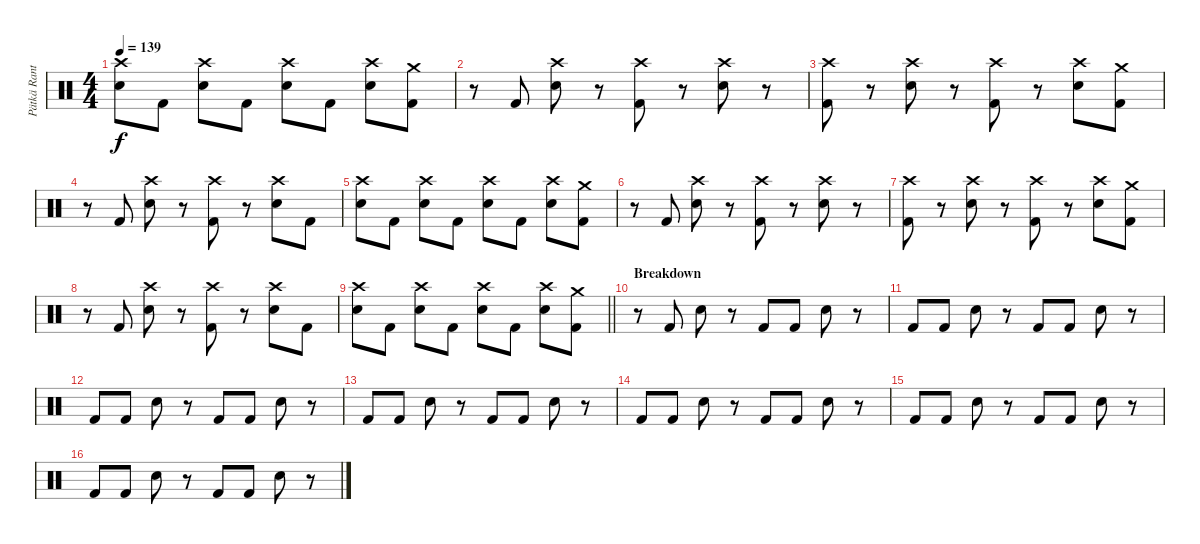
\track ("Pätkä Rantala (Drums)" "Pätkä Rant") {instrument percussion}
\staff {score}
\articulation defaults
\ts (4 4)
\tempo 139
\clef neutral
\ks c
("Crash high (hit)" "Snare (hit) 2").8{dy f} "Kick (hit) 2".8 ("Crash high (hit)" "Snare (hit) 2").8 "Kick (hit) 2".8 ("Crash high (hit)" "Snare (hit) 2").8 "Kick (hit) 2".8 ("Crash high (hit)" "Snare (hit) 2").8 ("Crash medium (hit)" "Kick (hit) 2").8 |
r.8 "Kick (hit) 2".8 ("Crash high (hit)" "Snare (hit) 2").8 r.8 ("Crash high (hit)" "Kick (hit) 2").8 r.8 ("Crash high (hit)" "Snare (hit) 2").8 r.8 |
("Crash high (hit)" "Kick (hit) 2").8 r.8 ("Crash high (hit)" "Snare (hit) 2").8 r.8 ("Crash high (hit)" "Kick (hit) 2").8 r.8 ("Crash high (hit)" "Snare (hit) 2").8 ("Crash medium (hit)" "Kick (hit) 2").8 |
r.8 "Kick (hit) 2".8 ("Crash high (hit)" "Snare (hit) 2").8 r.8 ("Crash high (hit)" "Kick (hit) 2").8 r.8 ("Crash high (hit)" "Snare (hit) 2").8 "Kick (hit) 2".8 |
("Crash high (hit)" "Snare (hit) 2").8 "Kick (hit) 2".8 ("Crash high (hit)" "Snare (hit) 2").8 "Kick (hit) 2".8 ("Crash high (hit)" "Snare (hit) 2").8 "Kick (hit) 2".8 ("Crash high (hit)" "Snare (hit) 2").8 ("Crash medium (hit)" "Kick (hit) 2").8 |
r.8 "Kick (hit) 2".8 ("Crash high (hit)" "Snare (hit) 2").8 r.8 ("Crash high (hit)" "Kick (hit) 2").8 r.8 ("Crash high (hit)" "Snare (hit) 2").8 r.8 |
("Crash high (hit)" "Kick (hit) 2").8 r.8 ("Crash high (hit)" "Snare (hit) 2").8 r.8 ("Crash high (hit)" "Kick (hit) 2").8 r.8 ("Crash high (hit)" "Snare (hit) 2").8 ("Crash medium (hit)" "Kick (hit) 2").8 |
r.8 "Kick (hit) 2".8 ("Crash high (hit)" "Snare (hit) 2").8 r.8 ("Crash high (hit)" "Kick (hit) 2").8 r.8 ("Crash high (hit)" "Snare (hit) 2").8 "Kick (hit) 2".8 |
\barLineRight lightlight
("Crash high (hit)" "Snare (hit) 2").8 "Kick (hit) 2".8 ("Crash high (hit)" "Snare (hit) 2").8 "Kick (hit) 2".8 ("Crash high (hit)" "Snare (hit) 2").8 "Kick (hit) 2".8 ("Crash high (hit)" "Snare (hit) 2").8 ("Crash medium (hit)" "Kick (hit) 2").8 |
\section ("" "Breakdown")
r.8 "Kick (hit) 2".8 "Snare (hit) 2".8 r.8 "Kick (hit) 2".8 "Kick (hit) 2".8 "Snare (hit) 2".8 r.8 |
"Kick (hit) 2".8 "Kick (hit) 2".8 "Snare (hit) 2".8 r.8 "Kick (hit) 2".8 "Kick (hit) 2".8 "Snare (hit) 2".8 r.8 |
"Kick (hit) 2".8 "Kick (hit) 2".8 "Snare (hit) 2".8 r.8 "Kick (hit) 2".8 "Kick (hit) 2".8 "Snare (hit) 2".8 r.8 |
"Kick (hit) 2".8 "Kick (hit) 2".8 "Snare (hit) 2".8 r.8 "Kick (hit) 2".8 "Kick (hit) 2".8 "Snare (hit) 2".8 r.8 |
"Kick (hit) 2".8 "Kick (hit) 2".8 "Snare (hit) 2".8 r.8 "Kick (hit) 2".8 "Kick (hit) 2".8 "Snare (hit) 2".8 r.8 |
"Kick (hit) 2".8 "Kick (hit) 2".8 "Snare (hit) 2".8 r.8 "Kick (hit) 2".8 "Kick (hit) 2".8 "Snare (hit) 2".8 r.8 |
"Kick (hit) 2".8 "Kick (hit) 2".8 "Snare (hit) 2".8 r.8 "Kick (hit) 2".8 "Kick (hit) 2".8 "Snare (hit) 2".8 r.8
